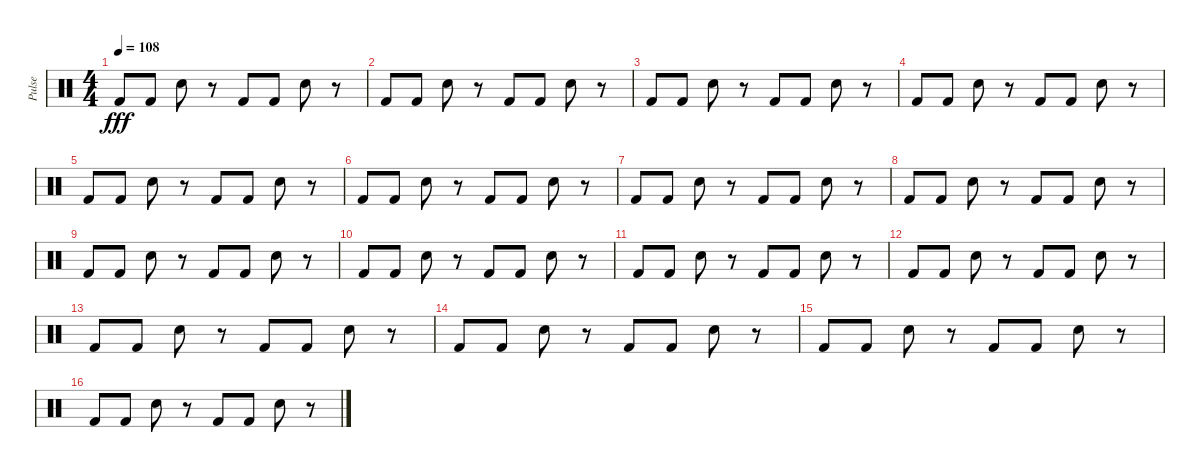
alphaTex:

\track ("Pulse" "Pulse") {instrument percussion}
\staff {score}
\articulation defaults
\ts (4 4)
\tempo 108
\clef neutral
\ks c "Kick (hit) 2".8{dy fff} "Kick (hit) 2".8 "Electric Snare (hit)".8
r.8 "Kick (hit) 2".8 "Kick (hit) 2".8 "Electric Snare (hit)".8 r.8 |
"Kick (hit) 2".8 "Kick (hit) 2".8 "Electric Snare (hit)".8 r.8 "Kick (hit) 2".8 "Kick (hit) 2".8 "Electric Snare (hit)".8 r.8 |
"Kick (hit) 2".8 "Kick (hit) 2".8 "Electric Snare (hit)".8 r.8 "Kick (hit) 2".8 "Kick (hit) 2".8 "Electric Snare (hit)".8 r.8 |
"Kick (hit) 2".8 "Kick (hit) 2".8 "Electric Snare (hit)".8 r.8 "Kick (hit) 2".8 "Kick (hit) 2".8 "Electric Snare (hit)".8 r.8 |
"Kick (hit) 2".8 "Kick (hit) 2".8 "Electric Snare (hit)".8 r.8 "Kick (hit) 2".8 "Kick (hit) 2".8 "Electric Snare (hit)".8 r.8 |
"Kick (hit) 2".8 "Kick (hit) 2".8 "Electric Snare (hit)".8 r.8 "Kick (hit) 2".8 "Kick (hit) 2".8 "Electric Snare (hit)".8 r.8 |
"Kick (hit) 2".8 "Kick (hit) 2".8 "Electric Snare (hit)".8 r.8 "Kick (hit) 2".8 "Kick (hit) 2".8 "Electric Snare (hit)".8 r.8 |
"Kick (hit) 2".8 "Kick (hit) 2".8 "Electric Snare (hit)".8 r.8 "Kick (hit) 2".8 "Kick (hit) 2".8 "Electric Snare (hit)".8 r.8 |
"Kick (hit) 2".8 "Kick (hit) 2".8 "Electric Snare (hit)".8 r.8 "Kick (hit) 2".8 "Kick (hit) 2".8 "Electric Snare (hit)".8 r.8 |
"Kick (hit) 2".8 "Kick (hit) 2".8 "Electric Snare (hit)".8 r.8 "Kick (hit) 2".8 "Kick (hit) 2".8 "Electric Snare (hit)".8 r.8 |
"Kick (hit) 2".8 "Kick (hit) 2".8 "Electric Snare (hit)".8 r.8 "Kick (hit) 2".8 "Kick (hit) 2".8 "Electric Snare (hit)".8 r.8 |
"Kick (hit) 2".8 "Kick (hit) 2".8 "Electric Snare (hit)".8 r.8 "Kick (hit) 2".8 "Kick (hit) 2".8 "Electric Snare (hit)".8 r.8 |
"Kick (hit) 2".8 "Kick (hit) 2".8 "Electric Snare (hit)".8 r.8 "Kick (hit) 2".8 "Kick (hit) 2".8 "Electric Snare (hit)".8 r.8 |
"Kick (hit) 2".8 "Kick (hit) 2".8 "Electric Snare (hit)".8 r.8 "Kick (hit) 2".8 "Kick (hit) 2".8 "Electric Snare (hit)".8 r.8 |
"Kick (hit) 2".8 "Kick (hit) 2".8 "Electric Snare (hit)".8 r.8 "Kick (hit) 2".8 "Kick (hit) 2".8 "Electric Snare (hit)".8 r.8 |
"Kick (hit) 2".8 "Kick (hit) 2".8 "Electric Snare (hit)".8 r.8 "Kick (hit) 2".8 "Kick (hit) 2".8 "Electric Snare (hit)".8 r.8
